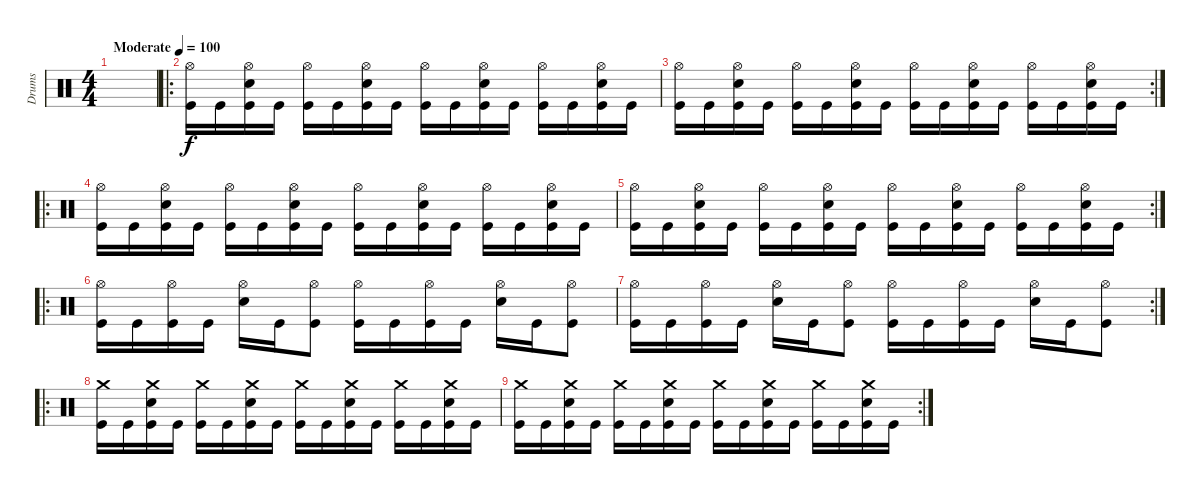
\track ("Drums" "Drums") {instrument percussion}
\staff {score}
\articulation defaults
\ts (4 4)
\tempo (100 "Moderate")
\clef neutral
\ks c
|
\ro
("Hi-Hat (open)" "Kick (hit)").16 "Kick (hit)".16 ("Hi-Hat (open)" "Snare (hit) 2" "Kick (hit)").16 "Kick (hit)".16 ("Hi-Hat (open)" "Kick (hit)").16 "Kick (hit)".16 ("Hi-Hat (open)" "Snare (hit) 2" "Kick (hit)").16 "Kick (hit)".16 ("Hi-Hat (open)" "Kick (hit)").16 "Kick (hit)".16 ("Hi-Hat (open)" "Snare (hit) 2" "Kick (hit)").16 "Kick (hit)".16 ("Hi-Hat (open)" "Kick (hit)").16 "Kick (hit)".16 ("Hi-Hat (open)" "Snare (hit) 2" "Kick (hit)").16 "Kick (hit)".16 |
\rc 2
("Hi-Hat (open)" "Kick (hit)").16 "Kick (hit)".16 ("Hi-Hat (open)" "Snare (hit) 2" "Kick (hit)").16 "Kick (hit)".16 ("Hi-Hat (open)" "Kick (hit)").16 "Kick (hit)".16 ("Hi-Hat (open)" "Snare (hit) 2" "Kick (hit)").16 "Kick (hit)".16 ("Hi-Hat (open)" "Kick (hit)").16 "Kick (hit)".16 ("Hi-Hat (open)" "Snare (hit) 2" "Kick (hit)").16 "Kick (hit)".16 ("Hi-Hat (open)" "Kick (hit)").16 "Kick (hit)".16 ("Hi-Hat (open)" "Snare (hit) 2" "Kick (hit)").16 "Kick (hit)".16 |
\ro
("Hi-Hat (open)" "Kick (hit)").16 "Kick (hit)".16 ("Hi-Hat (open)" "Snare (hit) 2" "Kick (hit)").16 "Kick (hit)".16 ("Hi-Hat (open)" "Kick (hit)").16 "Kick (hit)".16 ("Hi-Hat (open)" "Snare (hit) 2" "Kick (hit)").16 "Kick (hit)".16 ("Hi-Hat (open)" "Kick (hit)").16 "Kick (hit)".16 ("Hi-Hat (open)" "Snare (hit) 2" "Kick (hit)").16 "Kick (hit)".16 ("Hi-Hat (open)" "Kick (hit)").16 "Kick (hit)".16 ("Hi-Hat (open)" "Snare (hit) 2" "Kick (hit)").16 "Kick (hit)".16 |
\rc 2
("Hi-Hat (open)" "Kick (hit)").16 "Kick (hit)".16 ("Hi-Hat (open)" "Snare (hit) 2" "Kick (hit)").16 "Kick (hit)".16 ("Hi-Hat (open)" "Kick (hit)").16 "Kick (hit)".16 ("Hi-Hat (open)" "Snare (hit) 2" "Kick (hit)").16 "Kick (hit)".16 ("Hi-Hat (open)" "Kick (hit)").16 "Kick (hit)".16 ("Hi-Hat (open)" "Snare (hit) 2" "Kick (hit)").16 "Kick (hit)".16 ("Hi-Hat (open)" "Kick (hit)").16 "Kick (hit)".16 ("Hi-Hat (open)" "Snare (hit) 2" "Kick (hit)").16 "Kick (hit)".16 |
\ro
("Hi-Hat (open)" "Kick (hit)").16 "Kick (hit)".16 ("Hi-Hat (open)" "Kick (hit)").16 "Kick (hit)".16 ("Hi-Hat (open)" "Snare (hit) 2").16 "Kick (hit)".16 ("Hi-Hat (open)" "Kick (hit)").8 ("Hi-Hat (open)" "Kick (hit)").16 "Kick (hit)".16 ("Hi-Hat (open)" "Kick (hit)").16 "Kick (hit)".16 ("Hi-Hat (open)" "Snare (hit) 2").16 "Kick (hit)".16 ("Hi-Hat (open)" "Kick (hit)").8 |
\rc 2
("Hi-Hat (open)" "Kick (hit)").16 "Kick (hit)".16 ("Hi-Hat (open)" "Kick (hit)").16 "Kick (hit)".16 ("Hi-Hat (open)" "Snare (hit) 2").16 "Kick (hit)".16 ("Hi-Hat (open)" "Kick (hit)").8 ("Hi-Hat (open)" "Kick (hit)").16 "Kick (hit)".16 ("Hi-Hat (open)" "Kick (hit)").16 "Kick (hit)".16 ("Hi-Hat (open)" "Snare (hit) 2").16 "Kick (hit)".16 ("Hi-Hat (open)" "Kick (hit)").8 |
\ro
("Crash medium (hit)" "Kick (hit)").16 "Kick (hit)".16 ("Crash medium (hit)" "Snare (hit) 2" "Kick (hit)").16 "Kick (hit)".16 ("Crash medium (hit)" "Kick (hit)").16 "Kick (hit)".16 ("Crash medium (hit)" "Snare (hit) 2" "Kick (hit)").16 "Kick (hit)".16 ("Crash medium (hit)" "Kick (hit)").16 "Kick (hit)".16 ("Crash medium (hit)" "Snare (hit) 2" "Kick (hit)").16 "Kick (hit)".16 ("Crash medium (hit)" "Kick (hit)").16 "Kick (hit)".16 ("Crash medium (hit)" "Snare (hit) 2" "Kick (hit)").16 "Kick (hit)".16 |
\rc 2
("Crash medium (hit)" "Kick (hit)").16 "Kick (hit)".16 ("Crash medium (hit)" "Snare (hit) 2" "Kick (hit)").16 "Kick (hit)".16 ("Crash medium (hit)" "Kick (hit)").16 "Kick (hit)".16 ("Crash medium (hit)" "Snare (hit) 2" "Kick (hit)").16 "Kick (hit)".16 ("Crash medium (hit)" "Kick (hit)").16 "Kick (hit)".16 ("Crash medium (hit)" "Snare (hit) 2" "Kick (hit)").16 "Kick (hit)".16 ("Crash medium (hit)" "Kick (hit)").16 "Kick (hit)".16 ("Crash medium (hit)" "Snare (hit) 2" "Kick (hit)").16 "Kick (hit)".16
